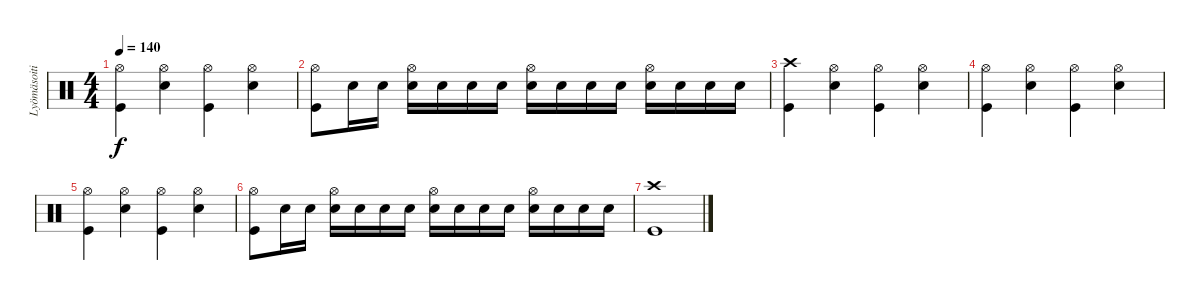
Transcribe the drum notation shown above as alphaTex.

\track ("Lyömäsoitin" "Lyömäsoiti") {instrument percussion}
\staff {score}
\articulation defaults
\ts (4 4)
\tempo 140
\clef neutral
\ks c
("Kick (hit)" "Hi-Hat (open)").4{dy f} ("Electric Snare (hit)" "Hi-Hat (open)").4 ("Kick (hit)" "Hi-Hat (open)").4 ("Electric Snare (hit)" "Hi-Hat (open)").4 |
("Kick (hit)" "Hi-Hat (open)").8 "Electric Snare (hit)".16 "Electric Snare (hit)".16 ("Electric Snare (hit)" "Hi-Hat (open)").16 "Electric Snare (hit)".16 "Electric Snare (hit)".16 "Electric Snare (hit)".16 ("Electric Snare (hit)" "Hi-Hat (open)").16 "Electric Snare (hit)".16 "Electric Snare (hit)".16 "Electric Snare (hit)".16 ("Electric Snare (hit)" "Hi-Hat (open)").16 "Electric Snare (hit)".16 "Electric Snare (hit)".16 "Electric Snare (hit)".16 |
("Kick (hit)" "Crash high (hit)").4 ("Electric Snare (hit)" "Hi-Hat (open)").4 ("Kick (hit)" "Hi-Hat (open)").4 ("Electric Snare (hit)" "Hi-Hat (open)").4 |
("Kick (hit)" "Hi-Hat (open)").4 ("Electric Snare (hit)" "Hi-Hat (open)").4 ("Kick (hit)" "Hi-Hat (open)").4 ("Electric Snare (hit)" "Hi-Hat (open)").4 |
("Kick (hit)" "Hi-Hat (open)").4 ("Electric Snare (hit)" "Hi-Hat (open)").4 ("Kick (hit)" "Hi-Hat (open)").4 ("Electric Snare (hit)" "Hi-Hat (open)").4 |
("Kick (hit)" "Hi-Hat (open)").8 "Electric Snare (hit)".16 "Electric Snare (hit)".16 ("Electric Snare (hit)" "Hi-Hat (open)").16 "Electric Snare (hit)".16 "Electric Snare (hit)".16 "Electric Snare (hit)".16 ("Electric Snare (hit)" "Hi-Hat (open)").16 "Electric Snare (hit)".16 "Electric Snare (hit)".16 "Electric Snare (hit)".16 ("Electric Snare (hit)" "Hi-Hat (open)").16 "Electric Snare (hit)".16 "Electric Snare (hit)".16 "Electric Snare (hit)".16 |
("Kick (hit)" "Crash high (hit)").1
